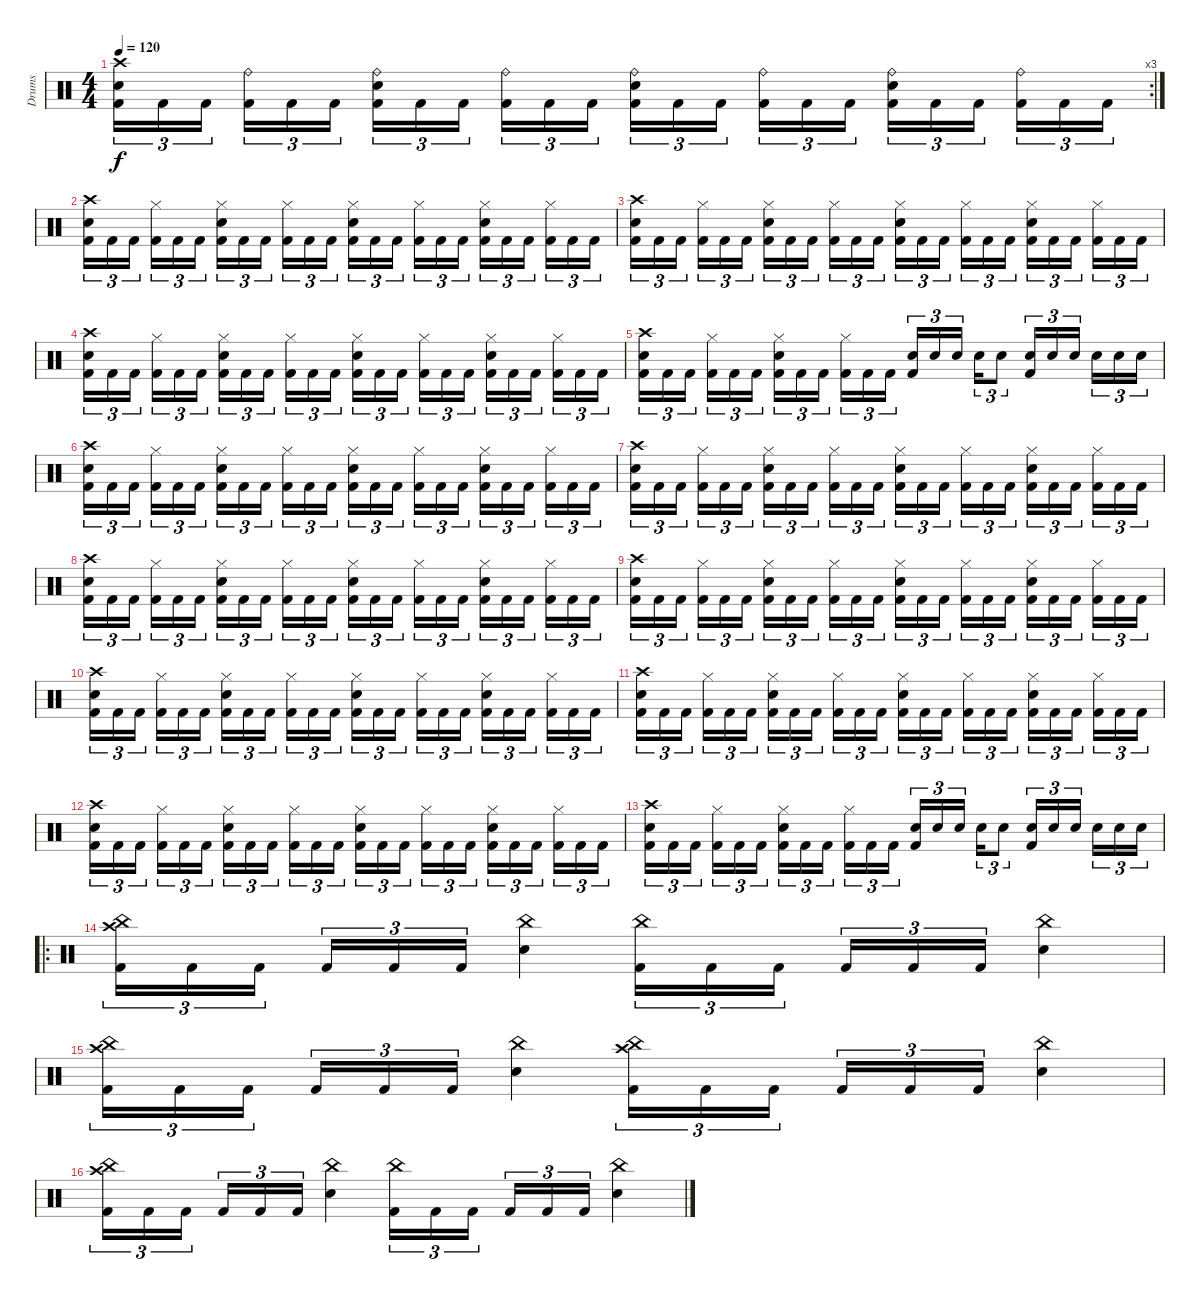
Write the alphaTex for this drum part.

\track ("Drums" "Drums") {instrument percussion}
\staff {score}
\articulation defaults
\rc 3
\ts (4 4)
\tempo 120
\clef neutral
\ks c
("Crash high (hit)" "Snare (hit) 2" "Kick (hit) 2").16{tu (3 2) dy f} "Kick (hit) 2".16{tu (3 2)} "Kick (hit) 2".16{tu (3 2)} ("Ride (bell)" "Kick (hit) 2").16{tu (3 2)} "Kick (hit) 2".16{tu (3 2)} "Kick (hit) 2".16{tu (3 2)} ("Ride (bell)" "Snare (hit) 2" "Kick (hit) 2").16{tu (3 2)} "Kick (hit) 2".16{tu (3 2)} "Kick (hit) 2".16{tu (3 2)} ("Ride (bell)" "Kick (hit) 2").16{tu (3 2)} "Kick (hit) 2".16{tu (3 2)} "Kick (hit) 2".16{tu (3 2)} ("Ride (bell)" "Snare (hit) 2" "Kick (hit) 2").16{tu (3 2)} "Kick (hit) 2".16{tu (3 2)} "Kick (hit) 2".16{tu (3 2)} ("Ride (bell)" "Kick (hit) 2").16{tu (3 2)} "Kick (hit) 2".16{tu (3 2)} "Kick (hit) 2".16{tu (3 2)} ("Ride (bell)" "Snare (hit) 2" "Kick (hit) 2").16{tu (3 2)} "Kick (hit) 2".16{tu (3 2)} "Kick (hit) 2".16{tu (3 2)} ("Ride (bell)" "Kick (hit) 2").16{tu (3 2)} "Kick (hit) 2".16{tu (3 2)} "Kick (hit) 2".16{tu (3 2)} |
("Crash high (hit)" "Snare (hit) 2" "Kick (hit) 2").16{tu (3 2)} "Kick (hit) 2".16{tu (3 2)} "Kick (hit) 2".16{tu (3 2)} ("Hi-Hat (closed)" "Kick (hit) 2").16{tu (3 2)} "Kick (hit) 2".16{tu (3 2)} "Kick (hit) 2".16{tu (3 2)} ("Hi-Hat (closed)" "Snare (hit) 2" "Kick (hit) 2").16{tu (3 2)} "Kick (hit) 2".16{tu (3 2)} "Kick (hit) 2".16{tu (3 2)} ("Hi-Hat (closed)" "Kick (hit) 2").16{tu (3 2)} "Kick (hit) 2".16{tu (3 2)} "Kick (hit) 2".16{tu (3 2)} ("Hi-Hat (closed)" "Snare (hit) 2" "Kick (hit) 2").16{tu (3 2)} "Kick (hit) 2".16{tu (3 2)} "Kick (hit) 2".16{tu (3 2)} ("Hi-Hat (closed)" "Kick (hit) 2").16{tu (3 2)} "Kick (hit) 2".16{tu (3 2)} "Kick (hit) 2".16{tu (3 2)} ("Hi-Hat (closed)" "Snare (hit) 2" "Kick (hit) 2").16{tu (3 2)} "Kick (hit) 2".16{tu (3 2)} "Kick (hit) 2".16{tu (3 2)} ("Hi-Hat (closed)" "Kick (hit) 2").16{tu (3 2)} "Kick (hit) 2".16{tu (3 2)} "Kick (hit) 2".16{tu (3 2)} |
("Crash high (hit)" "Snare (hit) 2" "Kick (hit) 2").16{tu (3 2)} "Kick (hit) 2".16{tu (3 2)} "Kick (hit) 2".16{tu (3 2)} ("Hi-Hat (closed)" "Kick (hit) 2").16{tu (3 2)} "Kick (hit) 2".16{tu (3 2)} "Kick (hit) 2".16{tu (3 2)} ("Hi-Hat (closed)" "Snare (hit) 2" "Kick (hit) 2").16{tu (3 2)} "Kick (hit) 2".16{tu (3 2)} "Kick (hit) 2".16{tu (3 2)} ("Hi-Hat (closed)" "Kick (hit) 2").16{tu (3 2)} "Kick (hit) 2".16{tu (3 2)} "Kick (hit) 2".16{tu (3 2)} ("Hi-Hat (closed)" "Snare (hit) 2" "Kick (hit) 2").16{tu (3 2)} "Kick (hit) 2".16{tu (3 2)} "Kick (hit) 2".16{tu (3 2)} ("Hi-Hat (closed)" "Kick (hit) 2").16{tu (3 2)} "Kick (hit) 2".16{tu (3 2)} "Kick (hit) 2".16{tu (3 2)} ("Hi-Hat (closed)" "Snare (hit) 2" "Kick (hit) 2").16{tu (3 2)} "Kick (hit) 2".16{tu (3 2)} "Kick (hit) 2".16{tu (3 2)} ("Hi-Hat (closed)" "Kick (hit) 2").16{tu (3 2)} "Kick (hit) 2".16{tu (3 2)} "Kick (hit) 2".16{tu (3 2)} |
("Crash high (hit)" "Snare (hit) 2" "Kick (hit) 2").16{tu (3 2)} "Kick (hit) 2".16{tu (3 2)} "Kick (hit) 2".16{tu (3 2)} ("Hi-Hat (closed)" "Kick (hit) 2").16{tu (3 2)} "Kick (hit) 2".16{tu (3 2)} "Kick (hit) 2".16{tu (3 2)} ("Hi-Hat (closed)" "Snare (hit) 2" "Kick (hit) 2").16{tu (3 2)} "Kick (hit) 2".16{tu (3 2)} "Kick (hit) 2".16{tu (3 2)} ("Hi-Hat (closed)" "Kick (hit) 2").16{tu (3 2)} "Kick (hit) 2".16{tu (3 2)} "Kick (hit) 2".16{tu (3 2)} ("Hi-Hat (closed)" "Snare (hit) 2" "Kick (hit) 2").16{tu (3 2)} "Kick (hit) 2".16{tu (3 2)} "Kick (hit) 2".16{tu (3 2)} ("Hi-Hat (closed)" "Kick (hit) 2").16{tu (3 2)} "Kick (hit) 2".16{tu (3 2)} "Kick (hit) 2".16{tu (3 2)} ("Hi-Hat (closed)" "Snare (hit) 2" "Kick (hit) 2").16{tu (3 2)} "Kick (hit) 2".16{tu (3 2)} "Kick (hit) 2".16{tu (3 2)} ("Hi-Hat (closed)" "Kick (hit) 2").16{tu (3 2)} "Kick (hit) 2".16{tu (3 2)} "Kick (hit) 2".16{tu (3 2)} |
("Crash high (hit)" "Snare (hit) 2" "Kick (hit) 2").16{tu (3 2)} "Kick (hit) 2".16{tu (3 2)} "Kick (hit) 2".16{tu (3 2)} ("Hi-Hat (closed)" "Kick (hit) 2").16{tu (3 2)} "Kick (hit) 2".16{tu (3 2)} "Kick (hit) 2".16{tu (3 2)} ("Hi-Hat (closed)" "Snare (hit) 2" "Kick (hit) 2").16{tu (3 2)} "Kick (hit) 2".16{tu (3 2)} "Kick (hit) 2".16{tu (3 2)} ("Hi-Hat (closed)" "Kick (hit) 2").16{tu (3 2)} "Kick (hit) 2".16{tu (3 2)} "Kick (hit) 2".16{tu (3 2)} ("Snare (hit) 2" "Kick (hit) 2").16{tu (3 2)} "Snare (hit) 2".16{tu (3 2)} "Snare (hit) 2".16{tu (3 2)} "Snare (hit) 2".16{tu (3 2)} "Snare (hit) 2".8{tu (3 2)} ("Snare (hit) 2" "Kick (hit) 2").16{tu (3 2)} "Snare (hit) 2".16{tu (3 2)} "Snare (hit) 2".16{tu (3 2)} "Snare (hit) 2".16{tu (3 2)} "Snare (hit) 2".16{tu (3 2)} "Snare (hit) 2".16{tu (3 2)} |
("Crash high (hit)" "Snare (hit) 2" "Kick (hit) 2").16{tu (3 2)} "Kick (hit) 2".16{tu (3 2)} "Kick (hit) 2".16{tu (3 2)} ("Hi-Hat (closed)" "Kick (hit) 2").16{tu (3 2)} "Kick (hit) 2".16{tu (3 2)} "Kick (hit) 2".16{tu (3 2)} ("Hi-Hat (closed)" "Snare (hit) 2" "Kick (hit) 2").16{tu (3 2)} "Kick (hit) 2".16{tu (3 2)} "Kick (hit) 2".16{tu (3 2)} ("Hi-Hat (closed)" "Kick (hit) 2").16{tu (3 2)} "Kick (hit) 2".16{tu (3 2)} "Kick (hit) 2".16{tu (3 2)} ("Hi-Hat (closed)" "Snare (hit) 2" "Kick (hit) 2").16{tu (3 2)} "Kick (hit) 2".16{tu (3 2)} "Kick (hit) 2".16{tu (3 2)} ("Hi-Hat (closed)" "Kick (hit) 2").16{tu (3 2)} "Kick (hit) 2".16{tu (3 2)} "Kick (hit) 2".16{tu (3 2)} ("Hi-Hat (closed)" "Snare (hit) 2" "Kick (hit) 2").16{tu (3 2)} "Kick (hit) 2".16{tu (3 2)} "Kick (hit) 2".16{tu (3 2)} ("Hi-Hat (closed)" "Kick (hit) 2").16{tu (3 2)} "Kick (hit) 2".16{tu (3 2)} "Kick (hit) 2".16{tu (3 2)} |
("Crash high (hit)" "Snare (hit) 2" "Kick (hit) 2").16{tu (3 2)} "Kick (hit) 2".16{tu (3 2)} "Kick (hit) 2".16{tu (3 2)} ("Hi-Hat (closed)" "Kick (hit) 2").16{tu (3 2)} "Kick (hit) 2".16{tu (3 2)} "Kick (hit) 2".16{tu (3 2)} ("Hi-Hat (closed)" "Snare (hit) 2" "Kick (hit) 2").16{tu (3 2)} "Kick (hit) 2".16{tu (3 2)} "Kick (hit) 2".16{tu (3 2)} ("Hi-Hat (closed)" "Kick (hit) 2").16{tu (3 2)} "Kick (hit) 2".16{tu (3 2)} "Kick (hit) 2".16{tu (3 2)} ("Hi-Hat (closed)" "Snare (hit) 2" "Kick (hit) 2").16{tu (3 2)} "Kick (hit) 2".16{tu (3 2)} "Kick (hit) 2".16{tu (3 2)} ("Hi-Hat (closed)" "Kick (hit) 2").16{tu (3 2)} "Kick (hit) 2".16{tu (3 2)} "Kick (hit) 2".16{tu (3 2)} ("Hi-Hat (closed)" "Snare (hit) 2" "Kick (hit) 2").16{tu (3 2)} "Kick (hit) 2".16{tu (3 2)} "Kick (hit) 2".16{tu (3 2)} ("Hi-Hat (closed)" "Kick (hit) 2").16{tu (3 2)} "Kick (hit) 2".16{tu (3 2)} "Kick (hit) 2".16{tu (3 2)} |
("Crash high (hit)" "Snare (hit) 2" "Kick (hit) 2").16{tu (3 2)} "Kick (hit) 2".16{tu (3 2)} "Kick (hit) 2".16{tu (3 2)} ("Hi-Hat (closed)" "Kick (hit) 2").16{tu (3 2)} "Kick (hit) 2".16{tu (3 2)} "Kick (hit) 2".16{tu (3 2)} ("Hi-Hat (closed)" "Snare (hit) 2" "Kick (hit) 2").16{tu (3 2)} "Kick (hit) 2".16{tu (3 2)} "Kick (hit) 2".16{tu (3 2)} ("Hi-Hat (closed)" "Kick (hit) 2").16{tu (3 2)} "Kick (hit) 2".16{tu (3 2)} "Kick (hit) 2".16{tu (3 2)} ("Hi-Hat (closed)" "Snare (hit) 2" "Kick (hit) 2").16{tu (3 2)} "Kick (hit) 2".16{tu (3 2)} "Kick (hit) 2".16{tu (3 2)} ("Hi-Hat (closed)" "Kick (hit) 2").16{tu (3 2)} "Kick (hit) 2".16{tu (3 2)} "Kick (hit) 2".16{tu (3 2)} ("Hi-Hat (closed)" "Snare (hit) 2" "Kick (hit) 2").16{tu (3 2)} "Kick (hit) 2".16{tu (3 2)} "Kick (hit) 2".16{tu (3 2)} ("Hi-Hat (closed)" "Kick (hit) 2").16{tu (3 2)} "Kick (hit) 2".16{tu (3 2)} "Kick (hit) 2".16{tu (3 2)} |
("Crash high (hit)" "Snare (hit) 2" "Kick (hit) 2").16{tu (3 2)} "Kick (hit) 2".16{tu (3 2)} "Kick (hit) 2".16{tu (3 2)} ("Hi-Hat (closed)" "Kick (hit) 2").16{tu (3 2)} "Kick (hit) 2".16{tu (3 2)} "Kick (hit) 2".16{tu (3 2)} ("Hi-Hat (closed)" "Snare (hit) 2" "Kick (hit) 2").16{tu (3 2)} "Kick (hit) 2".16{tu (3 2)} "Kick (hit) 2".16{tu (3 2)} ("Hi-Hat (closed)" "Kick (hit) 2").16{tu (3 2)} "Kick (hit) 2".16{tu (3 2)} "Kick (hit) 2".16{tu (3 2)} ("Hi-Hat (closed)" "Snare (hit) 2" "Kick (hit) 2").16{tu (3 2)} "Kick (hit) 2".16{tu (3 2)} "Kick (hit) 2".16{tu (3 2)} ("Hi-Hat (closed)" "Kick (hit) 2").16{tu (3 2)} "Kick (hit) 2".16{tu (3 2)} "Kick (hit) 2".16{tu (3 2)} ("Hi-Hat (closed)" "Snare (hit) 2" "Kick (hit) 2").16{tu (3 2)} "Kick (hit) 2".16{tu (3 2)} "Kick (hit) 2".16{tu (3 2)} ("Hi-Hat (closed)" "Kick (hit) 2").16{tu (3 2)} "Kick (hit) 2".16{tu (3 2)} "Kick (hit) 2".16{tu (3 2)} |
("Crash high (hit)" "Snare (hit) 2" "Kick (hit) 2").16{tu (3 2)} "Kick (hit) 2".16{tu (3 2)} "Kick (hit) 2".16{tu (3 2)} ("Hi-Hat (closed)" "Kick (hit) 2").16{tu (3 2)} "Kick (hit) 2".16{tu (3 2)} "Kick (hit) 2".16{tu (3 2)} ("Hi-Hat (closed)" "Snare (hit) 2" "Kick (hit) 2").16{tu (3 2)} "Kick (hit) 2".16{tu (3 2)} "Kick (hit) 2".16{tu (3 2)} ("Hi-Hat (closed)" "Kick (hit) 2").16{tu (3 2)} "Kick (hit) 2".16{tu (3 2)} "Kick (hit) 2".16{tu (3 2)} ("Hi-Hat (closed)" "Snare (hit) 2" "Kick (hit) 2").16{tu (3 2)} "Kick (hit) 2".16{tu (3 2)} "Kick (hit) 2".16{tu (3 2)} ("Hi-Hat (closed)" "Kick (hit) 2").16{tu (3 2)} "Kick (hit) 2".16{tu (3 2)} "Kick (hit) 2".16{tu (3 2)} ("Hi-Hat (closed)" "Snare (hit) 2" "Kick (hit) 2").16{tu (3 2)} "Kick (hit) 2".16{tu (3 2)} "Kick (hit) 2".16{tu (3 2)} ("Hi-Hat (closed)" "Kick (hit) 2").16{tu (3 2)} "Kick (hit) 2".16{tu (3 2)} "Kick (hit) 2".16{tu (3 2)} |
("Crash high (hit)" "Snare (hit) 2" "Kick (hit) 2").16{tu (3 2)} "Kick (hit) 2".16{tu (3 2)} "Kick (hit) 2".16{tu (3 2)} ("Hi-Hat (closed)" "Kick (hit) 2").16{tu (3 2)} "Kick (hit) 2".16{tu (3 2)} "Kick (hit) 2".16{tu (3 2)} ("Hi-Hat (closed)" "Snare (hit) 2" "Kick (hit) 2").16{tu (3 2)} "Kick (hit) 2".16{tu (3 2)} "Kick (hit) 2".16{tu (3 2)} ("Hi-Hat (closed)" "Kick (hit) 2").16{tu (3 2)} "Kick (hit) 2".16{tu (3 2)} "Kick (hit) 2".16{tu (3 2)} ("Hi-Hat (closed)" "Snare (hit) 2" "Kick (hit) 2").16{tu (3 2)} "Kick (hit) 2".16{tu (3 2)} "Kick (hit) 2".16{tu (3 2)} ("Hi-Hat (closed)" "Kick (hit) 2").16{tu (3 2)} "Kick (hit) 2".16{tu (3 2)} "Kick (hit) 2".16{tu (3 2)} ("Hi-Hat (closed)" "Snare (hit) 2" "Kick (hit) 2").16{tu (3 2)} "Kick (hit) 2".16{tu (3 2)} "Kick (hit) 2".16{tu (3 2)} ("Hi-Hat (closed)" "Kick (hit) 2").16{tu (3 2)} "Kick (hit) 2".16{tu (3 2)} "Kick (hit) 2".16{tu (3 2)} |
("Crash high (hit)" "Snare (hit) 2" "Kick (hit) 2").16{tu (3 2)} "Kick (hit) 2".16{tu (3 2)} "Kick (hit) 2".16{tu (3 2)} ("Hi-Hat (closed)" "Kick (hit) 2").16{tu (3 2)} "Kick (hit) 2".16{tu (3 2)} "Kick (hit) 2".16{tu (3 2)} ("Hi-Hat (closed)" "Snare (hit) 2" "Kick (hit) 2").16{tu (3 2)} "Kick (hit) 2".16{tu (3 2)} "Kick (hit) 2".16{tu (3 2)} ("Hi-Hat (closed)" "Kick (hit) 2").16{tu (3 2)} "Kick (hit) 2".16{tu (3 2)} "Kick (hit) 2".16{tu (3 2)} ("Hi-Hat (closed)" "Snare (hit) 2" "Kick (hit) 2").16{tu (3 2)} "Kick (hit) 2".16{tu (3 2)} "Kick (hit) 2".16{tu (3 2)} ("Hi-Hat (closed)" "Kick (hit) 2").16{tu (3 2)} "Kick (hit) 2".16{tu (3 2)} "Kick (hit) 2".16{tu (3 2)} ("Hi-Hat (closed)" "Snare (hit) 2" "Kick (hit) 2").16{tu (3 2)} "Kick (hit) 2".16{tu (3 2)} "Kick (hit) 2".16{tu (3 2)} ("Hi-Hat (closed)" "Kick (hit) 2").16{tu (3 2)} "Kick (hit) 2".16{tu (3 2)} "Kick (hit) 2".16{tu (3 2)} |
("Crash high (hit)" "Snare (hit) 2" "Kick (hit) 2").16{tu (3 2)} "Kick (hit) 2".16{tu (3 2)} "Kick (hit) 2".16{tu (3 2)} ("Hi-Hat (closed)" "Kick (hit) 2").16{tu (3 2)} "Kick (hit) 2".16{tu (3 2)} "Kick (hit) 2".16{tu (3 2)} ("Hi-Hat (closed)" "Snare (hit) 2" "Kick (hit) 2").16{tu (3 2)} "Kick (hit) 2".16{tu (3 2)} "Kick (hit) 2".16{tu (3 2)} ("Hi-Hat (closed)" "Kick (hit) 2").16{tu (3 2)} "Kick (hit) 2".16{tu (3 2)} "Kick (hit) 2".16{tu (3 2)} ("Snare (hit) 2" "Kick (hit) 2").16{tu (3 2)} "Snare (hit) 2".16{tu (3 2)} "Snare (hit) 2".16{tu (3 2)} "Snare (hit) 2".16{tu (3 2)} "Snare (hit) 2".8{tu (3 2)} ("Snare (hit) 2" "Kick (hit) 2").16{tu (3 2)} "Snare (hit) 2".16{tu (3 2)} "Snare (hit) 2".16{tu (3 2)} "Snare (hit) 2".16{tu (3 2)} "Snare (hit) 2".16{tu (3 2)} "Snare (hit) 2".16{tu (3 2)} |
\ro
("Crash high (hit)" "China (hit)" "Kick (hit) 2").16{tu (3 2)} "Kick (hit) 2".16{tu (3 2)} "Kick (hit) 2".16{tu (3 2)} "Kick (hit) 2".16{tu (3 2)} "Kick (hit) 2".16{tu (3 2)} "Kick (hit) 2".16{tu (3 2)} ("China (hit)" "Snare (hit) 2").4 ("China (hit)" "Kick (hit) 2").16{tu (3 2)} "Kick (hit) 2".16{tu (3 2)} "Kick (hit) 2".16{tu (3 2)} "Kick (hit) 2".16{tu (3 2)} "Kick (hit) 2".16{tu (3 2)} "Kick (hit) 2".16{tu (3 2)} ("China (hit)" "Snare (hit) 2").4 |
("Crash high (hit)" "China (hit)" "Kick (hit) 2").16{tu (3 2)} "Kick (hit) 2".16{tu (3 2)} "Kick (hit) 2".16{tu (3 2)} "Kick (hit) 2".16{tu (3 2)} "Kick (hit) 2".16{tu (3 2)} "Kick (hit) 2".16{tu (3 2)} ("China (hit)" "Snare (hit) 2").4 ("Crash high (hit)" "China (hit)" "Kick (hit) 2").16{tu (3 2)} "Kick (hit) 2".16{tu (3 2)} "Kick (hit) 2".16{tu (3 2)} "Kick (hit) 2".16{tu (3 2)} "Kick (hit) 2".16{tu (3 2)} "Kick (hit) 2".16{tu (3 2)} ("China (hit)" "Snare (hit) 2").4 |
("Crash high (hit)" "China (hit)" "Kick (hit) 2").16{tu (3 2)} "Kick (hit) 2".16{tu (3 2)} "Kick (hit) 2".16{tu (3 2)} "Kick (hit) 2".16{tu (3 2)} "Kick (hit) 2".16{tu (3 2)} "Kick (hit) 2".16{tu (3 2)} ("China (hit)" "Snare (hit) 2").4 ("China (hit)" "Kick (hit) 2").16{tu (3 2)} "Kick (hit) 2".16{tu (3 2)} "Kick (hit) 2".16{tu (3 2)} "Kick (hit) 2".16{tu (3 2)} "Kick (hit) 2".16{tu (3 2)} "Kick (hit) 2".16{tu (3 2)} ("China (hit)" "Snare (hit) 2").4
